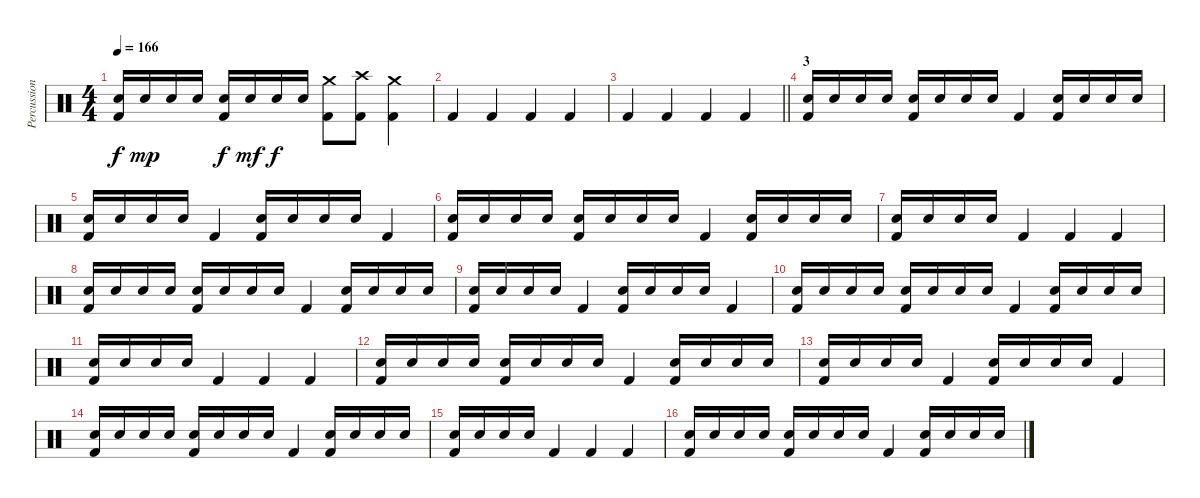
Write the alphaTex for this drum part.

\track ("Percussion" "Percussion") {instrument percussion}
\staff {score}
\articulation defaults
\ts (4 4)
\tempo 166
\clef neutral
\ks c
("Electric Snare (hit)" "Kick (hit) 2").16{dy f} "Electric Snare (hit)".16{dy mp} "Electric Snare (hit)".16 "Electric Snare (hit)".16 ("Electric Snare (hit)" "Kick (hit) 2").16{dy f} "Electric Snare (hit)".16{dy mf} "Electric Snare (hit)".16{dy f} "Electric Snare (hit)".16 ("Crash medium (hit)" "Kick (hit) 2").8 ("Crash high (hit)" "Kick (hit) 2").8 ("Crash medium (hit)" "Kick (hit) 2").4 |
"Kick (hit) 2".4 "Kick (hit) 2".4 "Kick (hit) 2".4 "Kick (hit) 2".4 |
\barLineRight lightlight "Kick (hit) 2".4 "Kick (hit) 2".4 "Kick (hit) 2".4 "Kick (hit) 2".4
|
\section ("" "3")
("Electric Snare (hit)" "Kick (hit) 2").16 "Electric Snare (hit)".16 "Electric Snare (hit)".16 "Electric Snare (hit)".16 ("Electric Snare (hit)" "Kick (hit) 2").16 "Electric Snare (hit)".16 "Electric Snare (hit)".16 "Electric Snare (hit)".16 "Kick (hit) 2".4 ("Electric Snare (hit)" "Kick (hit) 2").16 "Electric Snare (hit)".16 "Electric Snare (hit)".16 "Electric Snare (hit)".16 |
("Electric Snare (hit)" "Kick (hit) 2").16 "Electric Snare (hit)".16 "Electric Snare (hit)".16 "Electric Snare (hit)".16 "Kick (hit) 2".4 ("Electric Snare (hit)" "Kick (hit) 2").16 "Electric Snare (hit)".16 "Electric Snare (hit)".16 "Electric Snare (hit)".16 "Kick (hit) 2".4 |
("Electric Snare (hit)" "Kick (hit) 2").16 "Electric Snare (hit)".16 "Electric Snare (hit)".16 "Electric Snare (hit)".16 ("Electric Snare (hit)" "Kick (hit) 2").16 "Electric Snare (hit)".16 "Electric Snare (hit)".16 "Electric Snare (hit)".16 "Kick (hit) 2".4 ("Electric Snare (hit)" "Kick (hit) 2").16 "Electric Snare (hit)".16 "Electric Snare (hit)".16 "Electric Snare (hit)".16 |
("Electric Snare (hit)" "Kick (hit) 2").16 "Electric Snare (hit)".16 "Electric Snare (hit)".16 "Electric Snare (hit)".16 "Kick (hit) 2".4 "Kick (hit) 2".4 "Kick (hit) 2".4 |
("Electric Snare (hit)" "Kick (hit) 2").16 "Electric Snare (hit)".16 "Electric Snare (hit)".16 "Electric Snare (hit)".16 ("Electric Snare (hit)" "Kick (hit) 2").16 "Electric Snare (hit)".16 "Electric Snare (hit)".16 "Electric Snare (hit)".16 "Kick (hit) 2".4 ("Electric Snare (hit)" "Kick (hit) 2").16 "Electric Snare (hit)".16 "Electric Snare (hit)".16 "Electric Snare (hit)".16 |
("Electric Snare (hit)" "Kick (hit) 2").16 "Electric Snare (hit)".16 "Electric Snare (hit)".16 "Electric Snare (hit)".16 "Kick (hit) 2".4 ("Electric Snare (hit)" "Kick (hit) 2").16 "Electric Snare (hit)".16 "Electric Snare (hit)".16 "Electric Snare (hit)".16 "Kick (hit) 2".4 |
("Electric Snare (hit)" "Kick (hit) 2").16 "Electric Snare (hit)".16 "Electric Snare (hit)".16 "Electric Snare (hit)".16 ("Electric Snare (hit)" "Kick (hit) 2").16 "Electric Snare (hit)".16 "Electric Snare (hit)".16 "Electric Snare (hit)".16 "Kick (hit) 2".4 ("Electric Snare (hit)" "Kick (hit) 2").16 "Electric Snare (hit)".16 "Electric Snare (hit)".16 "Electric Snare (hit)".16 |
("Electric Snare (hit)" "Kick (hit) 2").16 "Electric Snare (hit)".16 "Electric Snare (hit)".16 "Electric Snare (hit)".16 "Kick (hit) 2".4 "Kick (hit) 2".4 "Kick (hit) 2".4 |
("Electric Snare (hit)" "Kick (hit) 2").16 "Electric Snare (hit)".16 "Electric Snare (hit)".16 "Electric Snare (hit)".16 ("Electric Snare (hit)" "Kick (hit) 2").16 "Electric Snare (hit)".16 "Electric Snare (hit)".16 "Electric Snare (hit)".16 "Kick (hit) 2".4 ("Electric Snare (hit)" "Kick (hit) 2").16 "Electric Snare (hit)".16 "Electric Snare (hit)".16 "Electric Snare (hit)".16 |
("Electric Snare (hit)" "Kick (hit) 2").16 "Electric Snare (hit)".16 "Electric Snare (hit)".16 "Electric Snare (hit)".16 "Kick (hit) 2".4 ("Electric Snare (hit)" "Kick (hit) 2").16 "Electric Snare (hit)".16 "Electric Snare (hit)".16 "Electric Snare (hit)".16 "Kick (hit) 2".4 |
("Electric Snare (hit)" "Kick (hit) 2").16 "Electric Snare (hit)".16 "Electric Snare (hit)".16 "Electric Snare (hit)".16 ("Electric Snare (hit)" "Kick (hit) 2").16 "Electric Snare (hit)".16 "Electric Snare (hit)".16 "Electric Snare (hit)".16 "Kick (hit) 2".4 ("Electric Snare (hit)" "Kick (hit) 2").16 "Electric Snare (hit)".16 "Electric Snare (hit)".16 "Electric Snare (hit)".16 |
("Electric Snare (hit)" "Kick (hit) 2").16 "Electric Snare (hit)".16 "Electric Snare (hit)".16 "Electric Snare (hit)".16 "Kick (hit) 2".4 "Kick (hit) 2".4 "Kick (hit) 2".4 |
("Electric Snare (hit)" "Kick (hit) 2").16 "Electric Snare (hit)".16 "Electric Snare (hit)".16 "Electric Snare (hit)".16 ("Electric Snare (hit)" "Kick (hit) 2").16 "Electric Snare (hit)".16 "Electric Snare (hit)".16 "Electric Snare (hit)".16 "Kick (hit) 2".4 ("Electric Snare (hit)" "Kick (hit) 2").16 "Electric Snare (hit)".16 "Electric Snare (hit)".16 "Electric Snare (hit)".16
